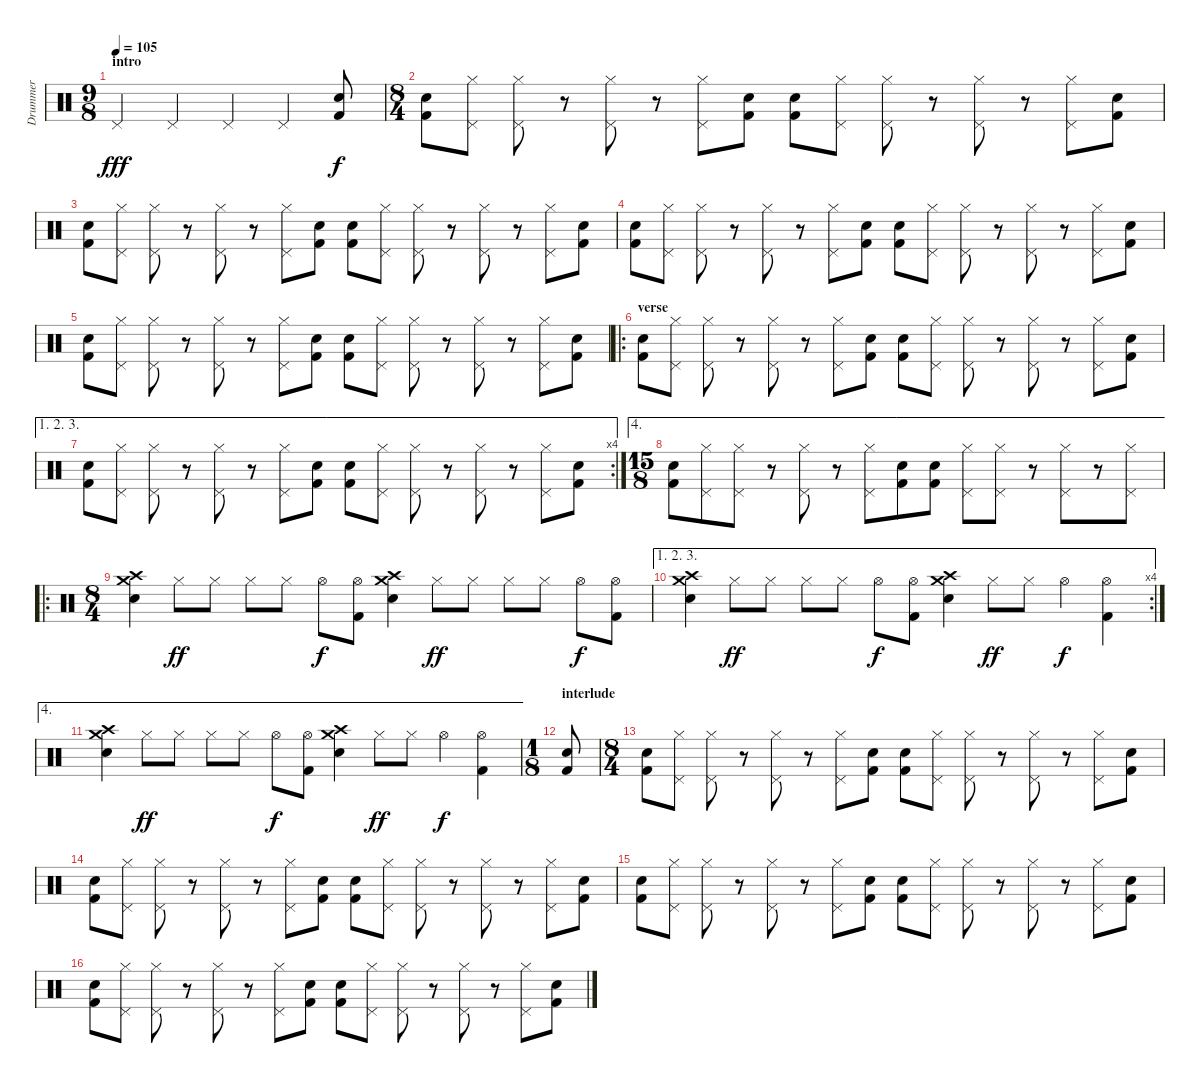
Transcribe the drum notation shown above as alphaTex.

\track ("Drummer" "Drummer") {instrument percussion}
\staff {score}
\articulation defaults
\ts (9 8)
\section ("" "intro")
\tempo 105
\clef neutral
\ks c "Pedal Hi-Hat (hit)".4{dy fff} "Pedal Hi-Hat (hit)".4 "Pedal Hi-Hat (hit)".4 "Pedal Hi-Hat (hit)".4
("Electric Snare (hit)" "Kick (hit) 2").8{dy f} |
\ts (8 4)
("Kick (hit) 2" "Electric Snare (hit)").8 ("Pedal Hi-Hat (hit)" "Hi-Hat (closed)").8 ("Hi-Hat (closed)" "Pedal Hi-Hat (hit)").8 r.8 ("Pedal Hi-Hat (hit)" "Hi-Hat (closed)").8 r.8 ("Pedal Hi-Hat (hit)" "Hi-Hat (closed)").8 ("Kick (hit) 2" "Electric Snare (hit)").8 ("Electric Snare (hit)" "Kick (hit) 2").8 ("Pedal Hi-Hat (hit)" "Hi-Hat (closed)").8 ("Hi-Hat (closed)" "Pedal Hi-Hat (hit)").8 r.8 ("Hi-Hat (closed)" "Pedal Hi-Hat (hit)").8 r.8 ("Hi-Hat (closed)" "Pedal Hi-Hat (hit)").8 ("Electric Snare (hit)" "Kick (hit) 2").8 |
("Kick (hit) 2" "Electric Snare (hit)").8 ("Pedal Hi-Hat (hit)" "Hi-Hat (closed)").8 ("Hi-Hat (closed)" "Pedal Hi-Hat (hit)").8 r.8 ("Pedal Hi-Hat (hit)" "Hi-Hat (closed)").8 r.8 ("Pedal Hi-Hat (hit)" "Hi-Hat (closed)").8 ("Kick (hit) 2" "Electric Snare (hit)").8 ("Electric Snare (hit)" "Kick (hit) 2").8 ("Pedal Hi-Hat (hit)" "Hi-Hat (closed)").8 ("Hi-Hat (closed)" "Pedal Hi-Hat (hit)").8 r.8 ("Hi-Hat (closed)" "Pedal Hi-Hat (hit)").8 r.8 ("Hi-Hat (closed)" "Pedal Hi-Hat (hit)").8 ("Electric Snare (hit)" "Kick (hit) 2").8 |
("Kick (hit) 2" "Electric Snare (hit)").8 ("Pedal Hi-Hat (hit)" "Hi-Hat (closed)").8 ("Hi-Hat (closed)" "Pedal Hi-Hat (hit)").8 r.8 ("Pedal Hi-Hat (hit)" "Hi-Hat (closed)").8 r.8 ("Pedal Hi-Hat (hit)" "Hi-Hat (closed)").8 ("Kick (hit) 2" "Electric Snare (hit)").8 ("Electric Snare (hit)" "Kick (hit) 2").8 ("Pedal Hi-Hat (hit)" "Hi-Hat (closed)").8 ("Hi-Hat (closed)" "Pedal Hi-Hat (hit)").8 r.8 ("Hi-Hat (closed)" "Pedal Hi-Hat (hit)").8 r.8 ("Hi-Hat (closed)" "Pedal Hi-Hat (hit)").8 ("Electric Snare (hit)" "Kick (hit) 2").8 |
("Kick (hit) 2" "Electric Snare (hit)").8 ("Pedal Hi-Hat (hit)" "Hi-Hat (closed)").8 ("Hi-Hat (closed)" "Pedal Hi-Hat (hit)").8 r.8 ("Pedal Hi-Hat (hit)" "Hi-Hat (closed)").8 r.8 ("Pedal Hi-Hat (hit)" "Hi-Hat (closed)").8 ("Kick (hit) 2" "Electric Snare (hit)").8 ("Electric Snare (hit)" "Kick (hit) 2").8 ("Pedal Hi-Hat (hit)" "Hi-Hat (closed)").8 ("Hi-Hat (closed)" "Pedal Hi-Hat (hit)").8 r.8 ("Hi-Hat (closed)" "Pedal Hi-Hat (hit)").8 r.8 ("Hi-Hat (closed)" "Pedal Hi-Hat (hit)").8 ("Electric Snare (hit)" "Kick (hit) 2").8 |
\ro
\section ("" "verse")
("Kick (hit) 2" "Electric Snare (hit)").8 ("Pedal Hi-Hat (hit)" "Hi-Hat (closed)").8 ("Hi-Hat (closed)" "Pedal Hi-Hat (hit)").8 r.8 ("Pedal Hi-Hat (hit)" "Hi-Hat (closed)").8 r.8 ("Pedal Hi-Hat (hit)" "Hi-Hat (closed)").8 ("Kick (hit) 2" "Electric Snare (hit)").8 ("Electric Snare (hit)" "Kick (hit) 2").8 ("Pedal Hi-Hat (hit)" "Hi-Hat (closed)").8 ("Hi-Hat (closed)" "Pedal Hi-Hat (hit)").8 r.8 ("Hi-Hat (closed)" "Pedal Hi-Hat (hit)").8 r.8 ("Hi-Hat (closed)" "Pedal Hi-Hat (hit)").8 ("Electric Snare (hit)" "Kick (hit) 2").8 |
\ae (1 2 3)
\rc 4
("Kick (hit) 2" "Electric Snare (hit)").8 ("Pedal Hi-Hat (hit)" "Hi-Hat (closed)").8 ("Hi-Hat (closed)" "Pedal Hi-Hat (hit)").8 r.8 ("Pedal Hi-Hat (hit)" "Hi-Hat (closed)").8 r.8 ("Pedal Hi-Hat (hit)" "Hi-Hat (closed)").8 ("Kick (hit) 2" "Electric Snare (hit)").8 ("Electric Snare (hit)" "Kick (hit) 2").8 ("Pedal Hi-Hat (hit)" "Hi-Hat (closed)").8 ("Hi-Hat (closed)" "Pedal Hi-Hat (hit)").8 r.8 ("Hi-Hat (closed)" "Pedal Hi-Hat (hit)").8 r.8 ("Hi-Hat (closed)" "Pedal Hi-Hat (hit)").8 ("Electric Snare (hit)" "Kick (hit) 2").8 |
\ae 4
\ts (15 8)
("Kick (hit) 2" "Electric Snare (hit)").8 ("Pedal Hi-Hat (hit)" "Hi-Hat (closed)").8 ("Hi-Hat (closed)" "Pedal Hi-Hat (hit)").8 r.8 ("Pedal Hi-Hat (hit)" "Hi-Hat (closed)").8 r.8 ("Pedal Hi-Hat (hit)" "Hi-Hat (closed)").8 ("Kick (hit) 2" "Electric Snare (hit)").8 ("Electric Snare (hit)" "Kick (hit) 2").8 ("Pedal Hi-Hat (hit)" "Hi-Hat (closed)").8 ("Hi-Hat (closed)" "Pedal Hi-Hat (hit)").8 r.8 ("Hi-Hat (closed)" "Pedal Hi-Hat (hit)").8 r.8 ("Hi-Hat (closed)" "Pedal Hi-Hat (hit)").8 |
\ro
\ts (8 4)
("Electric Snare (hit)" "Crash medium (hit)" "Crash high (hit)").4 "Hi-Hat (closed)".8{dy ff} "Hi-Hat (closed)".8 "Hi-Hat (closed)".8 "Hi-Hat (closed)".8 "Hi-Hat (open)".8{dy f} ("Hi-Hat (open)" "Kick (hit) 2").8 ("Crash high (hit)" "Crash medium (hit)" "Electric Snare (hit)").4 "Hi-Hat (closed)".8{dy ff} "Hi-Hat (closed)".8 "Hi-Hat (closed)".8 "Hi-Hat (closed)".8 "Hi-Hat (open)".8{dy f} ("Kick (hit) 2" "Hi-Hat (open)").8 |
\ae (1 2 3)
\rc 4
("Electric Snare (hit)" "Crash medium (hit)" "Crash high (hit)").4 "Hi-Hat (closed)".8{dy ff} "Hi-Hat (closed)".8 "Hi-Hat (closed)".8 "Hi-Hat (closed)".8 "Hi-Hat (open)".8{dy f} ("Hi-Hat (open)" "Kick (hit) 2").8 ("Crash high (hit)" "Crash medium (hit)" "Electric Snare (hit)").4 "Hi-Hat (closed)".8{dy ff} "Hi-Hat (closed)".8 "Hi-Hat (open)".4{dy f} ("Kick (hit) 2" "Hi-Hat (open)").4 |
\ae 4
("Electric Snare (hit)" "Crash medium (hit)" "Crash high (hit)").4 "Hi-Hat (closed)".8{dy ff} "Hi-Hat (closed)".8 "Hi-Hat (closed)".8 "Hi-Hat (closed)".8 "Hi-Hat (open)".8{dy f} ("Hi-Hat (open)" "Kick (hit) 2").8 ("Crash high (hit)" "Crash medium (hit)" "Electric Snare (hit)").4 "Hi-Hat (closed)".8{dy ff} "Hi-Hat (closed)".8 "Hi-Hat (open)".4{dy f} ("Kick (hit) 2" "Hi-Hat (open)").4 |
\ts (1 8)
\section ("" "interlude")
("Electric Snare (hit)" "Kick (hit) 2").8 |
\ts (8 4)
("Kick (hit) 2" "Electric Snare (hit)").8 ("Pedal Hi-Hat (hit)" "Hi-Hat (closed)").8 ("Hi-Hat (closed)" "Pedal Hi-Hat (hit)").8 r.8 ("Pedal Hi-Hat (hit)" "Hi-Hat (closed)").8 r.8 ("Pedal Hi-Hat (hit)" "Hi-Hat (closed)").8 ("Kick (hit) 2" "Electric Snare (hit)").8 ("Electric Snare (hit)" "Kick (hit) 2").8 ("Pedal Hi-Hat (hit)" "Hi-Hat (closed)").8 ("Hi-Hat (closed)" "Pedal Hi-Hat (hit)").8 r.8 ("Hi-Hat (closed)" "Pedal Hi-Hat (hit)").8 r.8 ("Hi-Hat (closed)" "Pedal Hi-Hat (hit)").8 ("Electric Snare (hit)" "Kick (hit) 2").8 |
("Kick (hit) 2" "Electric Snare (hit)").8 ("Pedal Hi-Hat (hit)" "Hi-Hat (closed)").8 ("Hi-Hat (closed)" "Pedal Hi-Hat (hit)").8 r.8 ("Pedal Hi-Hat (hit)" "Hi-Hat (closed)").8 r.8 ("Pedal Hi-Hat (hit)" "Hi-Hat (closed)").8 ("Kick (hit) 2" "Electric Snare (hit)").8 ("Electric Snare (hit)" "Kick (hit) 2").8 ("Pedal Hi-Hat (hit)" "Hi-Hat (closed)").8 ("Hi-Hat (closed)" "Pedal Hi-Hat (hit)").8 r.8 ("Hi-Hat (closed)" "Pedal Hi-Hat (hit)").8 r.8 ("Hi-Hat (closed)" "Pedal Hi-Hat (hit)").8 ("Electric Snare (hit)" "Kick (hit) 2").8 |
("Kick (hit) 2" "Electric Snare (hit)").8 ("Pedal Hi-Hat (hit)" "Hi-Hat (closed)").8 ("Hi-Hat (closed)" "Pedal Hi-Hat (hit)").8 r.8 ("Pedal Hi-Hat (hit)" "Hi-Hat (closed)").8 r.8 ("Pedal Hi-Hat (hit)" "Hi-Hat (closed)").8 ("Kick (hit) 2" "Electric Snare (hit)").8 ("Electric Snare (hit)" "Kick (hit) 2").8 ("Pedal Hi-Hat (hit)" "Hi-Hat (closed)").8 ("Hi-Hat (closed)" "Pedal Hi-Hat (hit)").8 r.8 ("Hi-Hat (closed)" "Pedal Hi-Hat (hit)").8 r.8 ("Hi-Hat (closed)" "Pedal Hi-Hat (hit)").8 ("Electric Snare (hit)" "Kick (hit) 2").8 |
("Kick (hit) 2" "Electric Snare (hit)").8 ("Pedal Hi-Hat (hit)" "Hi-Hat (closed)").8 ("Hi-Hat (closed)" "Pedal Hi-Hat (hit)").8 r.8 ("Pedal Hi-Hat (hit)" "Hi-Hat (closed)").8 r.8 ("Pedal Hi-Hat (hit)" "Hi-Hat (closed)").8 ("Kick (hit) 2" "Electric Snare (hit)").8 ("Electric Snare (hit)" "Kick (hit) 2").8 ("Pedal Hi-Hat (hit)" "Hi-Hat (closed)").8 ("Hi-Hat (closed)" "Pedal Hi-Hat (hit)").8 r.8 ("Hi-Hat (closed)" "Pedal Hi-Hat (hit)").8 r.8 ("Hi-Hat (closed)" "Pedal Hi-Hat (hit)").8 ("Electric Snare (hit)" "Kick (hit) 2").8
